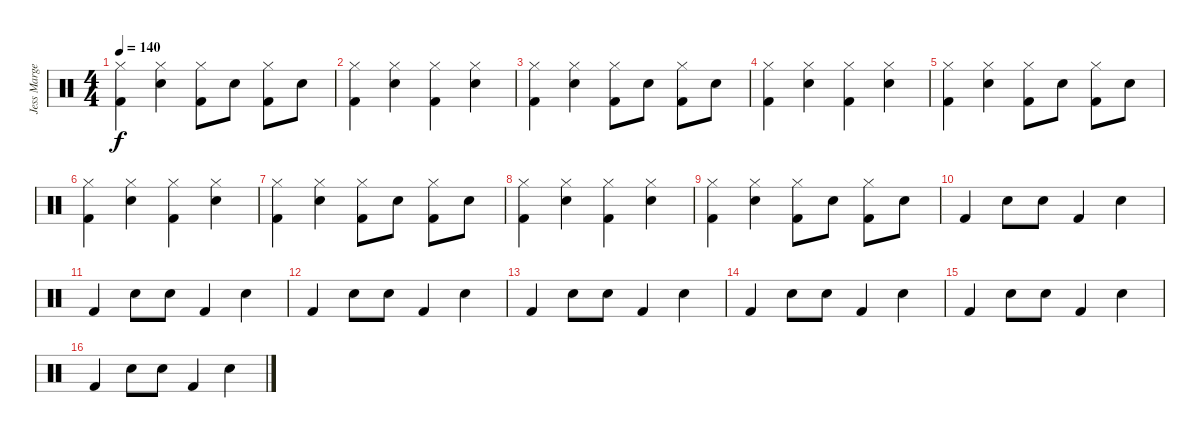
\track ("Jess Margera" "Jess Marge") {instrument percussion}
\staff {score}
\articulation defaults
\ts (4 4)
\tempo 140
\clef neutral
\ks c
("Hi-Hat (closed)" "Kick (hit) 2").4{dy f} ("Hi-Hat (closed)" "Electric Snare (hit)").4 ("Hi-Hat (closed)" "Kick (hit) 2").8 "Electric Snare (hit)".8 ("Hi-Hat (closed)" "Kick (hit) 2").8 "Electric Snare (hit)".8 |
("Hi-Hat (closed)" "Kick (hit) 2").4 ("Hi-Hat (closed)" "Electric Snare (hit)").4 ("Hi-Hat (closed)" "Kick (hit) 2").4 ("Hi-Hat (closed)" "Electric Snare (hit)").4 |
("Hi-Hat (closed)" "Kick (hit) 2").4 ("Hi-Hat (closed)" "Electric Snare (hit)").4 ("Hi-Hat (closed)" "Kick (hit) 2").8 "Electric Snare (hit)".8 ("Hi-Hat (closed)" "Kick (hit) 2").8 "Electric Snare (hit)".8 |
("Hi-Hat (closed)" "Kick (hit) 2").4 ("Hi-Hat (closed)" "Electric Snare (hit)").4 ("Hi-Hat (closed)" "Kick (hit) 2").4 ("Hi-Hat (closed)" "Electric Snare (hit)").4 |
("Hi-Hat (closed)" "Kick (hit) 2").4 ("Hi-Hat (closed)" "Electric Snare (hit)").4 ("Hi-Hat (closed)" "Kick (hit) 2").8 "Electric Snare (hit)".8 ("Hi-Hat (closed)" "Kick (hit) 2").8 "Electric Snare (hit)".8 |
("Hi-Hat (closed)" "Kick (hit) 2").4 ("Hi-Hat (closed)" "Electric Snare (hit)").4 ("Hi-Hat (closed)" "Kick (hit) 2").4 ("Hi-Hat (closed)" "Electric Snare (hit)").4 |
("Hi-Hat (closed)" "Kick (hit) 2").4 ("Hi-Hat (closed)" "Electric Snare (hit)").4 ("Hi-Hat (closed)" "Kick (hit) 2").8 "Electric Snare (hit)".8 ("Hi-Hat (closed)" "Kick (hit) 2").8 "Electric Snare (hit)".8 |
("Hi-Hat (closed)" "Kick (hit) 2").4 ("Hi-Hat (closed)" "Electric Snare (hit)").4 ("Hi-Hat (closed)" "Kick (hit) 2").4 ("Hi-Hat (closed)" "Electric Snare (hit)").4 |
("Hi-Hat (closed)" "Kick (hit) 2").4 ("Hi-Hat (closed)" "Electric Snare (hit)").4 ("Hi-Hat (closed)" "Kick (hit) 2").8 "Electric Snare (hit)".8 ("Hi-Hat (closed)" "Kick (hit) 2").8 "Electric Snare (hit)".8 |
"Kick (hit) 2".4 "Electric Snare (hit)".8 "Electric Snare (hit)".8 "Kick (hit) 2".4 "Electric Snare (hit)".4 |
"Kick (hit) 2".4 "Electric Snare (hit)".8 "Electric Snare (hit)".8 "Kick (hit) 2".4 "Electric Snare (hit)".4 |
"Kick (hit) 2".4 "Electric Snare (hit)".8 "Electric Snare (hit)".8 "Kick (hit) 2".4 "Electric Snare (hit)".4 |
"Kick (hit) 2".4 "Electric Snare (hit)".8 "Electric Snare (hit)".8 "Kick (hit) 2".4 "Electric Snare (hit)".4 |
"Kick (hit) 2".4 "Electric Snare (hit)".8 "Electric Snare (hit)".8 "Kick (hit) 2".4 "Electric Snare (hit)".4 |
"Kick (hit) 2".4 "Electric Snare (hit)".8 "Electric Snare (hit)".8 "Kick (hit) 2".4 "Electric Snare (hit)".4 |
"Kick (hit) 2".4 "Electric Snare (hit)".8 "Electric Snare (hit)".8 "Kick (hit) 2".4 "Electric Snare (hit)".4
